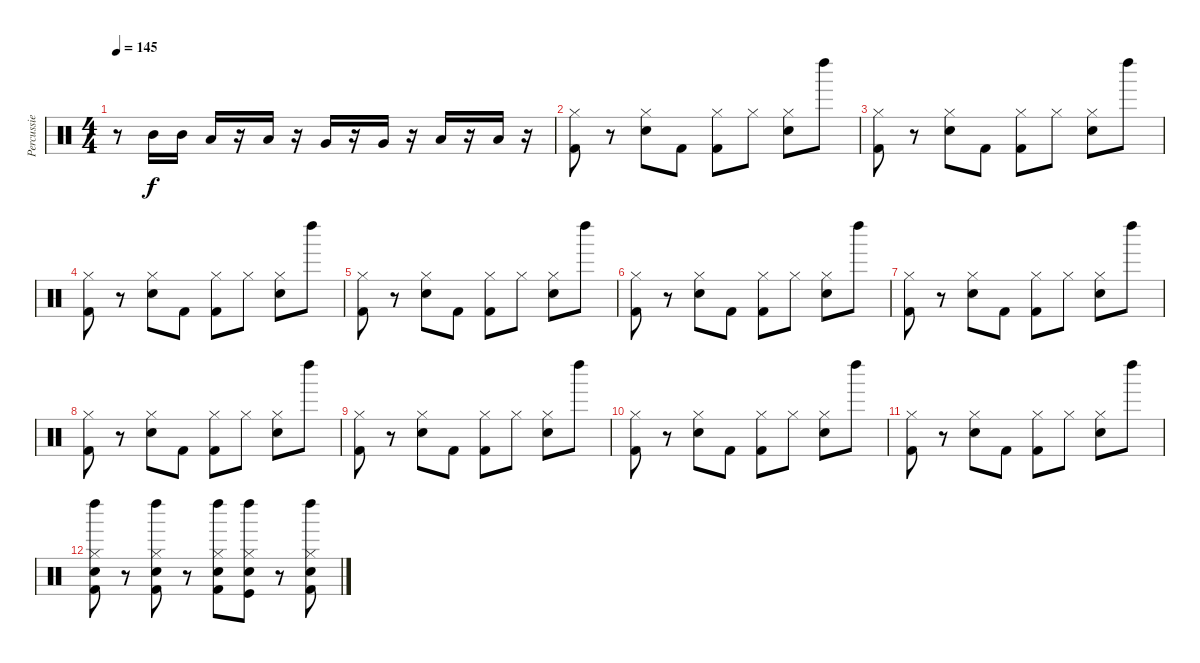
\track ("Percussie" "Percussie") {instrument percussion}
\staff {score}
\articulation defaults
\ts (4 4)
\tempo 145
\clef neutral
\ks c
r.8{dy f} "Mid Tom (hit)".16 "Mid Tom (hit)".16 "Low Tom (hit)".16 r.16 "Low Tom (hit)".16 r.16 "Very Low Tom (hit)".16 r.16 "Very Low Tom (hit)".16 r.16 "Low Floor Tom (hit)".16 r.16 "Low Floor Tom (hit)".16 r.16 |
("Kick (hit) 2" "Hi-Hat (closed)").8 r.8 ("Snare (hit) 2" "Hi-Hat (closed)").8 "Kick (hit) 2".8 ("Kick (hit) 2" "Hi-Hat (closed)").8 "Hi-Hat (closed)".8 ("Snare (hit) 2" "Hi-Hat (closed)").8 "Left Maraca (hit)".8 |
("Kick (hit) 2" "Hi-Hat (closed)").8 r.8 ("Snare (hit) 2" "Hi-Hat (closed)").8 "Kick (hit) 2".8 ("Kick (hit) 2" "Hi-Hat (closed)").8 "Hi-Hat (closed)".8 ("Snare (hit) 2" "Hi-Hat (closed)").8 "Left Maraca (hit)".8 |
("Kick (hit) 2" "Hi-Hat (closed)").8 r.8 ("Snare (hit) 2" "Hi-Hat (closed)").8 "Kick (hit) 2".8 ("Kick (hit) 2" "Hi-Hat (closed)").8 "Hi-Hat (closed)".8 ("Snare (hit) 2" "Hi-Hat (closed)").8 "Left Maraca (hit)".8 |
("Kick (hit) 2" "Hi-Hat (closed)").8 r.8 ("Snare (hit) 2" "Hi-Hat (closed)").8 "Kick (hit) 2".8 ("Kick (hit) 2" "Hi-Hat (closed)").8 "Hi-Hat (closed)".8 ("Snare (hit) 2" "Hi-Hat (closed)").8 "Left Maraca (hit)".8 |
("Kick (hit) 2" "Hi-Hat (closed)").8 r.8 ("Snare (hit) 2" "Hi-Hat (closed)").8 "Kick (hit) 2".8 ("Kick (hit) 2" "Hi-Hat (closed)").8 "Hi-Hat (closed)".8 ("Snare (hit) 2" "Hi-Hat (closed)").8 "Left Maraca (hit)".8 |
("Kick (hit) 2" "Hi-Hat (closed)").8 r.8 ("Snare (hit) 2" "Hi-Hat (closed)").8 "Kick (hit) 2".8 ("Kick (hit) 2" "Hi-Hat (closed)").8 "Hi-Hat (closed)".8 ("Snare (hit) 2" "Hi-Hat (closed)").8 "Left Maraca (hit)".8 |
("Kick (hit) 2" "Hi-Hat (closed)").8 r.8 ("Snare (hit) 2" "Hi-Hat (closed)").8 "Kick (hit) 2".8 ("Kick (hit) 2" "Hi-Hat (closed)").8 "Hi-Hat (closed)".8 ("Snare (hit) 2" "Hi-Hat (closed)").8 "Left Maraca (hit)".8 |
("Kick (hit) 2" "Hi-Hat (closed)").8 r.8 ("Snare (hit) 2" "Hi-Hat (closed)").8 "Kick (hit) 2".8 ("Kick (hit) 2" "Hi-Hat (closed)").8 "Hi-Hat (closed)".8 ("Snare (hit) 2" "Hi-Hat (closed)").8 "Left Maraca (hit)".8 |
("Kick (hit) 2" "Hi-Hat (closed)").8 r.8 ("Snare (hit) 2" "Hi-Hat (closed)").8 "Kick (hit) 2".8 ("Kick (hit) 2" "Hi-Hat (closed)").8 "Hi-Hat (closed)".8 ("Snare (hit) 2" "Hi-Hat (closed)").8 "Left Maraca (hit)".8 |
("Kick (hit) 2" "Hi-Hat (closed)").8 r.8 ("Snare (hit) 2" "Hi-Hat (closed)").8 "Kick (hit) 2".8 ("Kick (hit) 2" "Hi-Hat (closed)").8 "Hi-Hat (closed)".8 ("Snare (hit) 2" "Hi-Hat (closed)").8 "Left Maraca (hit)".8 |
("Kick (hit) 2" "Left Maraca (hit)" "Snare (hit) 2" "Hi-Hat (closed)").8 r.8 ("Kick (hit) 2" "Left Maraca (hit)" "Snare (hit) 2" "Hi-Hat (closed)").8 r.8 ("Kick (hit) 2" "Left Maraca (hit)" "Snare (hit) 2" "Hi-Hat (closed)").8 ("Kick (hit)" "Left Maraca (hit)" "Snare (hit) 2" "Hi-Hat (closed)").8 r.8 ("Kick (hit) 2" "Left Maraca (hit)" "Snare (hit) 2" "Hi-Hat (closed)").8
